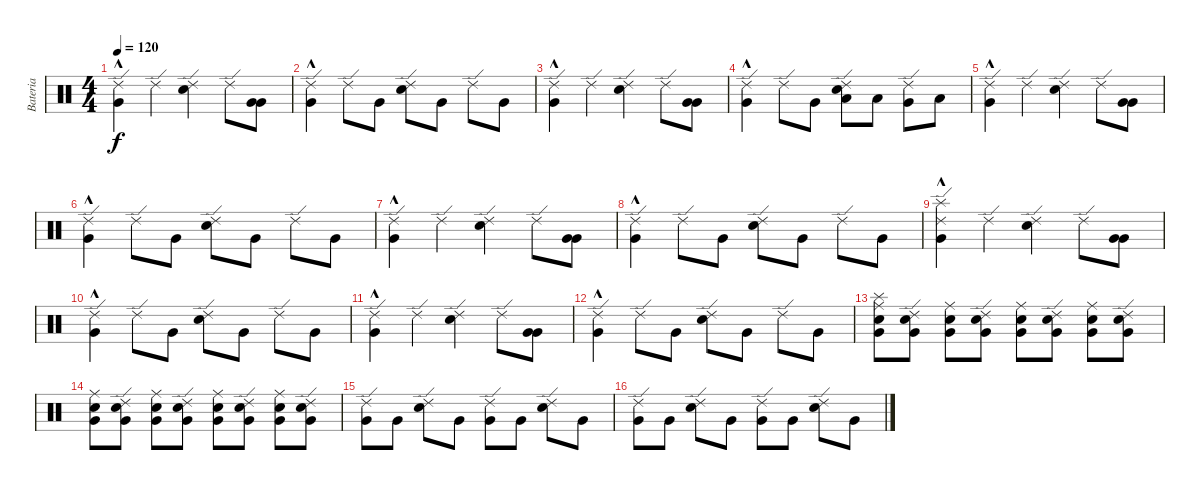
\track ("Bateria" "Bateria") {instrument percussion}
\staff {score}
\articulation defaults
\ts (4 4)
\tempo 120
\clef neutral
\ks c
("Ride (edge) 2" "Very Low Tom (hit)"{hac}).4{dy f} "Ride (edge) 2".4 ("Ride (edge) 2" "Snare (hit) 2").4 "Ride (edge) 2".8 ("Very Low Tom (hit)" "Very Low Tom (hit)").8 |
("Ride (edge) 2" "Very Low Tom (hit)"{hac}).4 "Ride (edge) 2".8 "Very Low Tom (hit)".8 ("Snare (hit) 2" "Ride (edge) 2").8 "Very Low Tom (hit)".8 "Ride (edge) 2".8 "Very Low Tom (hit)".8 |
("Ride (edge) 2" "Very Low Tom (hit)"{hac}).4 "Ride (edge) 2".4 ("Ride (edge) 2" "Snare (hit) 2").4 "Ride (edge) 2".8 ("Very Low Tom (hit)" "Very Low Tom (hit)").8 |
("Ride (edge) 2" "Very Low Tom (hit)"{hac}).4 "Ride (edge) 2".8 "Very Low Tom (hit)".8 ("Low Tom (hit)" "Snare (hit) 2" "Ride (edge) 2").8 "Low Tom (hit)".8 ("Very Low Tom (hit)" "Ride (edge) 2").8 "Low Floor Tom (hit)".8 |
("Ride (edge) 2" "Very Low Tom (hit)"{hac}).4 "Ride (edge) 2".4 ("Ride (edge) 2" "Snare (hit) 2").4 "Ride (edge) 2".8 ("Very Low Tom (hit)" "Very Low Tom (hit)").8 |
("Ride (edge) 2" "Very Low Tom (hit)"{hac}).4 "Ride (edge) 2".8 "Very Low Tom (hit)".8 ("Snare (hit) 2" "Ride (edge) 2").8 "Very Low Tom (hit)".8 "Ride (edge) 2".8 "Very Low Tom (hit)".8 |
("Ride (edge) 2" "Very Low Tom (hit)"{hac}).4 "Ride (edge) 2".4 ("Ride (edge) 2" "Snare (hit) 2").4 "Ride (edge) 2".8 ("Very Low Tom (hit)" "Very Low Tom (hit)").8 |
("Ride (edge) 2" "Very Low Tom (hit)"{hac}).4 "Ride (edge) 2".8 "Very Low Tom (hit)".8 ("Snare (hit) 2" "Ride (edge) 2").8 "Very Low Tom (hit)".8 "Ride (edge) 2".8 "Very Low Tom (hit)".8 |
("Splash (hit)" "Ride (edge) 2" "Very Low Tom (hit)"{hac}).4 "Ride (edge) 2".4 ("Ride (edge) 2" "Snare (hit) 2").4 "Ride (edge) 2".8 ("Very Low Tom (hit)" "Very Low Tom (hit)").8 |
("Ride (edge) 2" "Very Low Tom (hit)"{hac}).4 "Ride (edge) 2".8 "Very Low Tom (hit)".8 ("Snare (hit) 2" "Ride (edge) 2").8 "Very Low Tom (hit)".8 "Ride (edge) 2".8 "Very Low Tom (hit)".8 |
("Ride (edge) 2" "Very Low Tom (hit)"{hac}).4 "Ride (edge) 2".4 ("Ride (edge) 2" "Snare (hit) 2").4 "Ride (edge) 2".8 ("Very Low Tom (hit)" "Very Low Tom (hit)").8 |
("Ride (edge) 2" "Very Low Tom (hit)"{hac}).4 "Ride (edge) 2".8 "Very Low Tom (hit)".8 ("Snare (hit) 2" "Ride (edge) 2").8 "Very Low Tom (hit)".8 "Ride (edge) 2".8 "Very Low Tom (hit)".8 |
("Splash (hit)" "Ride (middle)" "Snare (hit) 2" "Very Low Tom (hit)").8 ("Ride (edge) 2" "Snare (hit) 2" "Very Low Tom (hit)").8 ("Ride (middle)" "Snare (hit) 2" "Very Low Tom (hit)").8 ("Ride (edge) 2" "Snare (hit) 2" "Very Low Tom (hit)").8 ("Ride (middle)" "Snare (hit) 2" "Very Low Tom (hit)").8 ("Ride (edge) 2" "Snare (hit) 2" "Very Low Tom (hit)").8 ("Ride (middle)" "Snare (hit) 2" "Very Low Tom (hit)").8 ("Ride (edge) 2" "Snare (hit) 2" "Very Low Tom (hit)").8 |
("Ride (middle)" "Snare (hit) 2" "Very Low Tom (hit)").8 ("Ride (edge) 2" "Snare (hit) 2" "Very Low Tom (hit)").8 ("Ride (middle)" "Snare (hit) 2" "Very Low Tom (hit)").8 ("Ride (edge) 2" "Snare (hit) 2" "Very Low Tom (hit)").8 ("Ride (middle)" "Snare (hit) 2" "Very Low Tom (hit)").8 ("Ride (edge) 2" "Snare (hit) 2" "Very Low Tom (hit)").8 ("Ride (middle)" "Snare (hit) 2" "Very Low Tom (hit)").8 ("Ride (edge) 2" "Snare (hit) 2" "Very Low Tom (hit)").8 |
("Ride (edge) 2" "Very Low Tom (hit)").8 "Very Low Tom (hit)".8 ("Snare (hit) 2" "Ride (edge) 2").8 "Very Low Tom (hit)".8 ("Very Low Tom (hit)" "Ride (edge) 2").8 "Very Low Tom (hit)".8 ("Snare (hit) 2" "Ride (edge) 2").8 "Very Low Tom (hit)".8 |
("Ride (edge) 2" "Very Low Tom (hit)").8 "Very Low Tom (hit)".8 ("Snare (hit) 2" "Ride (edge) 2").8 "Very Low Tom (hit)".8 ("Very Low Tom (hit)" "Ride (edge) 2").8 "Very Low Tom (hit)".8 ("Snare (hit) 2" "Ride (edge) 2").8 "Very Low Tom (hit)".8
